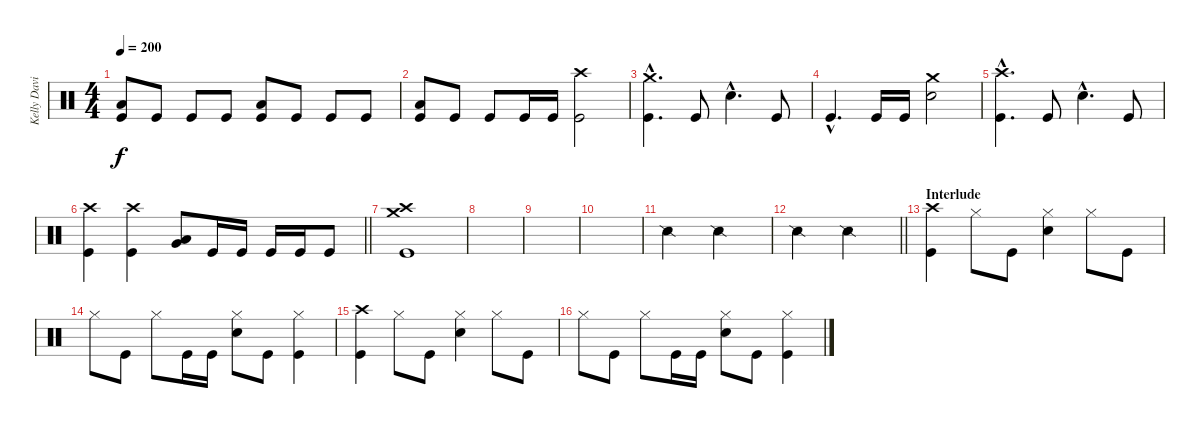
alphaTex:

\track ("Kelly David Smith" "Kelly Davi") {instrument percussion}
\staff {score}
\articulation defaults
\ts (4 4)
\tempo 200
\clef neutral
\ks c
("Low Floor Tom (hit)" "Kick (hit)").8{dy f} "Kick (hit)".8 "Kick (hit)".8 "Kick (hit)".8 ("Low Floor Tom (hit)" "Kick (hit)").8 "Kick (hit)".8 "Kick (hit)".8 "Kick (hit)".8 |
("Low Floor Tom (hit)" "Kick (hit)").8 "Kick (hit)".8 "Kick (hit)".8 "Kick (hit)".16 "Kick (hit)".16 ("Crash high (hit)" "Kick (hit)").2 |
("Crash medium (hit)"{hac} "Kick (hit)"{hac}).4{d} "Kick (hit)".8 "Electric Snare (hit)"{hac}.4{d} "Kick (hit)".8 |
"Kick (hit)"{hac}.4{d} "Kick (hit)".16 "Kick (hit)".16 ("Crash medium (hit)" "Electric Snare (hit)").2 |
("Crash high (hit)"{hac} "Kick (hit)"{hac}).4{d} "Kick (hit)".8 "Electric Snare (hit)"{hac}.4{d} "Kick (hit)".8 |
\barLineRight lightlight
("Crash high (hit)" "Kick (hit)").4 ("Crash high (hit)" "Kick (hit)").4 ("Very Low Tom (hit)" "Low Floor Tom (hit)").8 "Kick (hit)".16 "Kick (hit)".16 "Kick (hit)".16 "Kick (hit)".16 "Kick (hit)".8 |
("Crash high (hit)" "Crash medium (hit)" "Kick (hit)").1 |
|
|
|
"Snare (side stick) 2".2 "Snare (side stick) 2".2 |
\barLineRight lightlight "Snare (side stick) 2".2 "Snare (side stick) 2".2
|
\section ("" "Interlude")
("Crash high (hit)" "Kick (hit)").4 "Hi-Hat (closed)".8 "Kick (hit)".8 ("Hi-Hat (closed)" "Electric Snare (hit)").4 "Hi-Hat (closed)".8 "Kick (hit)".8 |
"Hi-Hat (closed)".8 "Kick (hit)".8 "Hi-Hat (closed)".8 "Kick (hit)".16 "Kick (hit)".16 ("Hi-Hat (closed)" "Electric Snare (hit)").8 "Kick (hit)".8 ("Hi-Hat (closed)" "Kick (hit)").4 |
("Crash high (hit)" "Kick (hit)").4 "Hi-Hat (closed)".8 "Kick (hit)".8 ("Hi-Hat (closed)" "Electric Snare (hit)").4 "Hi-Hat (closed)".8 "Kick (hit)".8 |
"Hi-Hat (closed)".8 "Kick (hit)".8 "Hi-Hat (closed)".8 "Kick (hit)".16 "Kick (hit)".16 ("Hi-Hat (closed)" "Electric Snare (hit)").8 "Kick (hit)".8 ("Hi-Hat (closed)" "Kick (hit)").4
